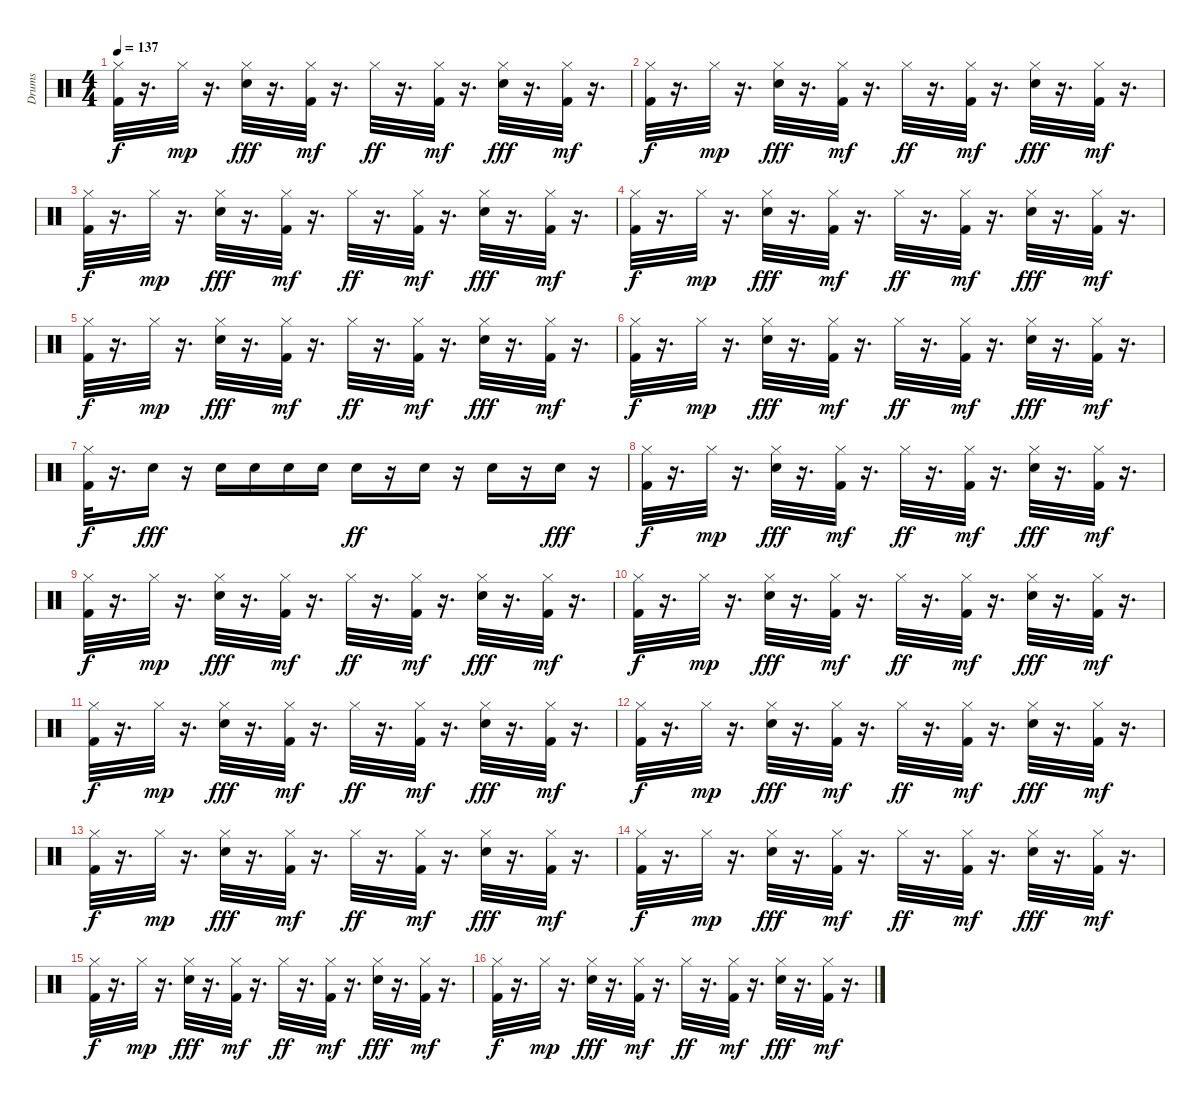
\track ("Drums" "Drums") {instrument percussion}
\staff {score}
\articulation defaults
\ts (4 4)
\tempo 137
\clef neutral
\ks c
("Hi-Hat (closed)" "Kick (hit) 2").32{dy f} r.16{d} "Hi-Hat (closed)".32{dy mp} r.16{d} ("Hi-Hat (closed)" "Snare (hit) 2").32{dy fff} r.16{d} ("Hi-Hat (closed)" "Kick (hit) 2").32{dy mf} r.16{d} "Hi-Hat (closed)".32{dy ff} r.16{d} ("Hi-Hat (closed)" "Kick (hit) 2").32{dy mf} r.16{d} ("Hi-Hat (closed)" "Snare (hit) 2").32{dy fff} r.16{d} ("Hi-Hat (closed)" "Kick (hit) 2").32{dy mf} r.16{d} |
("Hi-Hat (closed)" "Kick (hit) 2").32{dy f} r.16{d} "Hi-Hat (closed)".32{dy mp} r.16{d} ("Hi-Hat (closed)" "Snare (hit) 2").32{dy fff} r.16{d} ("Hi-Hat (closed)" "Kick (hit) 2").32{dy mf} r.16{d} "Hi-Hat (closed)".32{dy ff} r.16{d} ("Hi-Hat (closed)" "Kick (hit) 2").32{dy mf} r.16{d} ("Hi-Hat (closed)" "Snare (hit) 2").32{dy fff} r.16{d} ("Hi-Hat (closed)" "Kick (hit) 2").32{dy mf} r.16{d} |
("Hi-Hat (closed)" "Kick (hit) 2").32{dy f} r.16{d} "Hi-Hat (closed)".32{dy mp} r.16{d} ("Hi-Hat (closed)" "Snare (hit) 2").32{dy fff} r.16{d} ("Hi-Hat (closed)" "Kick (hit) 2").32{dy mf} r.16{d} "Hi-Hat (closed)".32{dy ff} r.16{d} ("Hi-Hat (closed)" "Kick (hit) 2").32{dy mf} r.16{d} ("Hi-Hat (closed)" "Snare (hit) 2").32{dy fff} r.16{d} ("Hi-Hat (closed)" "Kick (hit) 2").32{dy mf} r.16{d} |
("Hi-Hat (closed)" "Kick (hit) 2").32{dy f} r.16{d} "Hi-Hat (closed)".32{dy mp} r.16{d} ("Hi-Hat (closed)" "Snare (hit) 2").32{dy fff} r.16{d} ("Hi-Hat (closed)" "Kick (hit) 2").32{dy mf} r.16{d} "Hi-Hat (closed)".32{dy ff} r.16{d} ("Hi-Hat (closed)" "Kick (hit) 2").32{dy mf} r.16{d} ("Hi-Hat (closed)" "Snare (hit) 2").32{dy fff} r.16{d} ("Hi-Hat (closed)" "Kick (hit) 2").32{dy mf} r.16{d} |
("Hi-Hat (closed)" "Kick (hit) 2").32{dy f} r.16{d} "Hi-Hat (closed)".32{dy mp} r.16{d} ("Hi-Hat (closed)" "Snare (hit) 2").32{dy fff} r.16{d} ("Hi-Hat (closed)" "Kick (hit) 2").32{dy mf} r.16{d} "Hi-Hat (closed)".32{dy ff} r.16{d} ("Hi-Hat (closed)" "Kick (hit) 2").32{dy mf} r.16{d} ("Hi-Hat (closed)" "Snare (hit) 2").32{dy fff} r.16{d} ("Hi-Hat (closed)" "Kick (hit) 2").32{dy mf} r.16{d} |
("Hi-Hat (closed)" "Kick (hit) 2").32{dy f} r.16{d} "Hi-Hat (closed)".32{dy mp} r.16{d} ("Hi-Hat (closed)" "Snare (hit) 2").32{dy fff} r.16{d} ("Hi-Hat (closed)" "Kick (hit) 2").32{dy mf} r.16{d} "Hi-Hat (closed)".32{dy ff} r.16{d} ("Hi-Hat (closed)" "Kick (hit) 2").32{dy mf} r.16{d} ("Hi-Hat (closed)" "Snare (hit) 2").32{dy fff} r.16{d} ("Hi-Hat (closed)" "Kick (hit) 2").32{dy mf} r.16{d} |
("Hi-Hat (closed)" "Kick (hit) 2").32{dy f} r.16{d} "Snare (hit) 2".16{dy fff} r.16 "Snare (hit) 2".16 "Snare (hit) 2".16 "Snare (hit) 2".16 "Snare (hit) 2".16 "Electric Snare (hit)".16{dy ff} r.16 "Electric Snare (hit)".16 r.16 "Snare (hit) 2".16 r.16 "Snare (hit) 2".16{dy fff} r.16 |
("Hi-Hat (closed)" "Kick (hit) 2").32{dy f} r.16{d} "Hi-Hat (closed)".32{dy mp} r.16{d} ("Hi-Hat (closed)" "Snare (hit) 2").32{dy fff} r.16{d} ("Hi-Hat (closed)" "Kick (hit) 2").32{dy mf} r.16{d} "Hi-Hat (closed)".32{dy ff} r.16{d} ("Hi-Hat (closed)" "Kick (hit) 2").32{dy mf} r.16{d} ("Hi-Hat (closed)" "Snare (hit) 2").32{dy fff} r.16{d} ("Hi-Hat (closed)" "Kick (hit) 2").32{dy mf} r.16{d} |
("Hi-Hat (closed)" "Kick (hit) 2").32{dy f} r.16{d} "Hi-Hat (closed)".32{dy mp} r.16{d} ("Hi-Hat (closed)" "Snare (hit) 2").32{dy fff} r.16{d} ("Hi-Hat (closed)" "Kick (hit) 2").32{dy mf} r.16{d} "Hi-Hat (closed)".32{dy ff} r.16{d} ("Hi-Hat (closed)" "Kick (hit) 2").32{dy mf} r.16{d} ("Hi-Hat (closed)" "Snare (hit) 2").32{dy fff} r.16{d} ("Hi-Hat (closed)" "Kick (hit) 2").32{dy mf} r.16{d} |
("Hi-Hat (closed)" "Kick (hit) 2").32{dy f} r.16{d} "Hi-Hat (closed)".32{dy mp} r.16{d} ("Hi-Hat (closed)" "Snare (hit) 2").32{dy fff} r.16{d} ("Hi-Hat (closed)" "Kick (hit) 2").32{dy mf} r.16{d} "Hi-Hat (closed)".32{dy ff} r.16{d} ("Hi-Hat (closed)" "Kick (hit) 2").32{dy mf} r.16{d} ("Hi-Hat (closed)" "Snare (hit) 2").32{dy fff} r.16{d} ("Hi-Hat (closed)" "Kick (hit) 2").32{dy mf} r.16{d} |
("Hi-Hat (closed)" "Kick (hit) 2").32{dy f} r.16{d} "Hi-Hat (closed)".32{dy mp} r.16{d} ("Hi-Hat (closed)" "Snare (hit) 2").32{dy fff} r.16{d} ("Hi-Hat (closed)" "Kick (hit) 2").32{dy mf} r.16{d} "Hi-Hat (closed)".32{dy ff} r.16{d} ("Hi-Hat (closed)" "Kick (hit) 2").32{dy mf} r.16{d} ("Hi-Hat (closed)" "Snare (hit) 2").32{dy fff} r.16{d} ("Hi-Hat (closed)" "Kick (hit) 2").32{dy mf} r.16{d} |
("Hi-Hat (closed)" "Kick (hit) 2").32{dy f} r.16{d} "Hi-Hat (closed)".32{dy mp} r.16{d} ("Hi-Hat (closed)" "Snare (hit) 2").32{dy fff} r.16{d} ("Hi-Hat (closed)" "Kick (hit) 2").32{dy mf} r.16{d} "Hi-Hat (closed)".32{dy ff} r.16{d} ("Hi-Hat (closed)" "Kick (hit) 2").32{dy mf} r.16{d} ("Hi-Hat (closed)" "Snare (hit) 2").32{dy fff} r.16{d} ("Hi-Hat (closed)" "Kick (hit) 2").32{dy mf} r.16{d} |
("Hi-Hat (closed)" "Kick (hit) 2").32{dy f} r.16{d} "Hi-Hat (closed)".32{dy mp} r.16{d} ("Hi-Hat (closed)" "Snare (hit) 2").32{dy fff} r.16{d} ("Hi-Hat (closed)" "Kick (hit) 2").32{dy mf} r.16{d} "Hi-Hat (closed)".32{dy ff} r.16{d} ("Hi-Hat (closed)" "Kick (hit) 2").32{dy mf} r.16{d} ("Hi-Hat (closed)" "Snare (hit) 2").32{dy fff} r.16{d} ("Hi-Hat (closed)" "Kick (hit) 2").32{dy mf} r.16{d} |
("Hi-Hat (closed)" "Kick (hit) 2").32{dy f} r.16{d} "Hi-Hat (closed)".32{dy mp} r.16{d} ("Hi-Hat (closed)" "Snare (hit) 2").32{dy fff} r.16{d} ("Hi-Hat (closed)" "Kick (hit) 2").32{dy mf} r.16{d} "Hi-Hat (closed)".32{dy ff} r.16{d} ("Hi-Hat (closed)" "Kick (hit) 2").32{dy mf} r.16{d} ("Hi-Hat (closed)" "Snare (hit) 2").32{dy fff} r.16{d} ("Hi-Hat (closed)" "Kick (hit) 2").32{dy mf} r.16{d} |
("Hi-Hat (closed)" "Kick (hit) 2").32{dy f} r.16{d} "Hi-Hat (closed)".32{dy mp} r.16{d} ("Hi-Hat (closed)" "Snare (hit) 2").32{dy fff} r.16{d} ("Hi-Hat (closed)" "Kick (hit) 2").32{dy mf} r.16{d} "Hi-Hat (closed)".32{dy ff} r.16{d} ("Hi-Hat (closed)" "Kick (hit) 2").32{dy mf} r.16{d} ("Hi-Hat (closed)" "Snare (hit) 2").32{dy fff} r.16{d} ("Hi-Hat (closed)" "Kick (hit) 2").32{dy mf} r.16{d} |
("Hi-Hat (closed)" "Kick (hit) 2").32{dy f} r.16{d} "Hi-Hat (closed)".32{dy mp} r.16{d} ("Hi-Hat (closed)" "Snare (hit) 2").32{dy fff} r.16{d} ("Hi-Hat (closed)" "Kick (hit) 2").32{dy mf} r.16{d} "Hi-Hat (closed)".32{dy ff} r.16{d} ("Hi-Hat (closed)" "Kick (hit) 2").32{dy mf} r.16{d} ("Hi-Hat (closed)" "Snare (hit) 2").32{dy fff} r.16{d} ("Hi-Hat (closed)" "Kick (hit) 2").32{dy mf} r.16{d}
